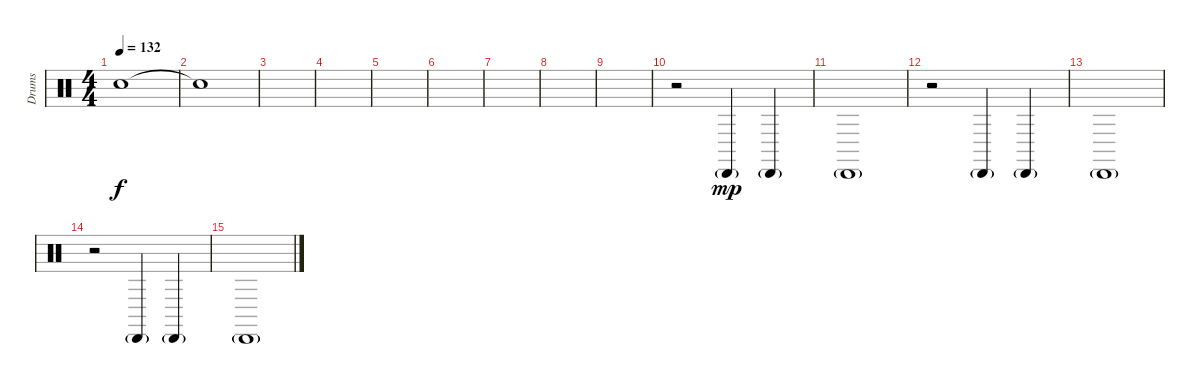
\track ("Drums" "Drums") {instrument percussion}
\staff {score}
\articulation defaults
\ts (4 4)
\tempo 132
\clef neutral
\ks c "Snare (hit)"{t}.1{dy f volume 0}
|
"Snare (hit)"{t}.1 |
|
|
|
|
|
|
|
r.2{volume 13} "Cabasa (hit)"{g}.4{dy mp} "Cabasa (hit)"{g}.4 |
"Cabasa (hit)"{g}.1 |
r.2 "Cabasa (hit)"{g}.4 "Cabasa (hit)"{g}.4 |
"Cabasa (hit)"{g}.1 |
r.2 "Cabasa (hit)"{g}.4 "Cabasa (hit)"{g}.4 |
"Cabasa (hit)"{g}.1
